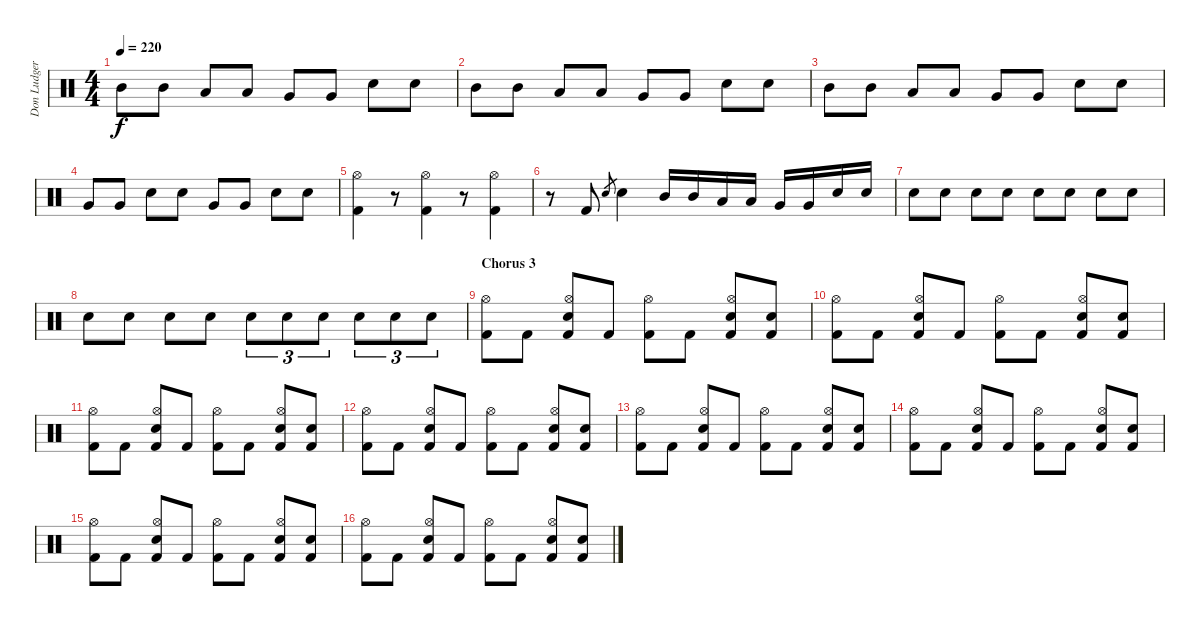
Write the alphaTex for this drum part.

\track ("Don Ludger" "Don Ludger") {instrument percussion}
\staff {score}
\articulation defaults
\ts (4 4)
\tempo 220
\clef neutral
\ks c "Mid Tom (hit)".8{dy f} "Mid Tom (hit)".8 "Low Tom (hit)".8 "Low Tom (hit)".8 "Very Low Tom (hit)".8 "Very Low Tom (hit)".8 "Electric Snare (hit)".8 "Electric Snare (hit)".8
|
"Mid Tom (hit)".8 "Mid Tom (hit)".8 "Low Tom (hit)".8 "Low Tom (hit)".8 "Very Low Tom (hit)".8 "Very Low Tom (hit)".8 "Electric Snare (hit)".8 "Electric Snare (hit)".8 |
"Mid Tom (hit)".8 "Mid Tom (hit)".8 "Low Tom (hit)".8 "Low Tom (hit)".8 "Very Low Tom (hit)".8 "Very Low Tom (hit)".8 "Electric Snare (hit)".8 "Electric Snare (hit)".8 |
"Very Low Tom (hit)".8 "Very Low Tom (hit)".8 "Electric Snare (hit)".8 "Electric Snare (hit)".8 "Very Low Tom (hit)".8 "Very Low Tom (hit)".8 "Electric Snare (hit)".8 "Electric Snare (hit)".8 |
("Hi-Hat (open)" "Kick (hit) 2").4 r.8 ("Hi-Hat (open)" "Kick (hit) 2").4 r.8 ("Hi-Hat (open)" "Kick (hit) 2").4 |
r.8 "Kick (hit) 2".8 "Electric Snare (hit)".8{gr} "Electric Snare (hit)".4 "Mid Tom (hit)".16 "Mid Tom (hit)".16 "Low Tom (hit)".16 "Low Tom (hit)".16 "Very Low Tom (hit)".16 "Very Low Tom (hit)".16 "Electric Snare (hit)".16 "Electric Snare (hit)".16 |
"Electric Snare (hit)".8 "Electric Snare (hit)".8 "Electric Snare (hit)".8 "Electric Snare (hit)".8 "Electric Snare (hit)".8 "Electric Snare (hit)".8 "Electric Snare (hit)".8 "Electric Snare (hit)".8 |
"Electric Snare (hit)".8 "Electric Snare (hit)".8 "Electric Snare (hit)".8 "Electric Snare (hit)".8 "Electric Snare (hit)".8{tu (3 2)} "Electric Snare (hit)".8{tu (3 2)} "Electric Snare (hit)".8{tu (3 2)} "Electric Snare (hit)".8{tu (3 2)} "Electric Snare (hit)".8{tu (3 2)} "Electric Snare (hit)".8{tu (3 2)} |
\section ("" "Chorus 3")
("Hi-Hat (open)" "Kick (hit) 2").8 "Kick (hit) 2".8 ("Hi-Hat (open)" "Electric Snare (hit)" "Kick (hit) 2").8 "Kick (hit) 2".8 ("Hi-Hat (open)" "Kick (hit) 2").8 "Kick (hit) 2".8 ("Hi-Hat (open)" "Electric Snare (hit)" "Kick (hit) 2").8 ("Electric Snare (hit)" "Kick (hit) 2").8 |
("Hi-Hat (open)" "Kick (hit) 2").8 "Kick (hit) 2".8 ("Hi-Hat (open)" "Electric Snare (hit)" "Kick (hit) 2").8 "Kick (hit) 2".8 ("Hi-Hat (open)" "Kick (hit) 2").8 "Kick (hit) 2".8 ("Hi-Hat (open)" "Electric Snare (hit)" "Kick (hit) 2").8 ("Electric Snare (hit)" "Kick (hit) 2").8 |
("Hi-Hat (open)" "Kick (hit) 2").8 "Kick (hit) 2".8 ("Hi-Hat (open)" "Electric Snare (hit)" "Kick (hit) 2").8 "Kick (hit) 2".8 ("Hi-Hat (open)" "Kick (hit) 2").8 "Kick (hit) 2".8 ("Hi-Hat (open)" "Electric Snare (hit)" "Kick (hit) 2").8 ("Electric Snare (hit)" "Kick (hit) 2").8 |
("Hi-Hat (open)" "Kick (hit) 2").8 "Kick (hit) 2".8 ("Hi-Hat (open)" "Electric Snare (hit)" "Kick (hit) 2").8 "Kick (hit) 2".8 ("Hi-Hat (open)" "Kick (hit) 2").8 "Kick (hit) 2".8 ("Hi-Hat (open)" "Electric Snare (hit)" "Kick (hit) 2").8 ("Electric Snare (hit)" "Kick (hit) 2").8 |
("Hi-Hat (open)" "Kick (hit) 2").8 "Kick (hit) 2".8 ("Hi-Hat (open)" "Electric Snare (hit)" "Kick (hit) 2").8 "Kick (hit) 2".8 ("Hi-Hat (open)" "Kick (hit) 2").8 "Kick (hit) 2".8 ("Hi-Hat (open)" "Electric Snare (hit)" "Kick (hit) 2").8 ("Electric Snare (hit)" "Kick (hit) 2").8 |
("Hi-Hat (open)" "Kick (hit) 2").8 "Kick (hit) 2".8 ("Hi-Hat (open)" "Electric Snare (hit)" "Kick (hit) 2").8 "Kick (hit) 2".8 ("Hi-Hat (open)" "Kick (hit) 2").8 "Kick (hit) 2".8 ("Hi-Hat (open)" "Electric Snare (hit)" "Kick (hit) 2").8 ("Electric Snare (hit)" "Kick (hit) 2").8 |
("Hi-Hat (open)" "Kick (hit) 2").8 "Kick (hit) 2".8 ("Hi-Hat (open)" "Electric Snare (hit)" "Kick (hit) 2").8 "Kick (hit) 2".8 ("Hi-Hat (open)" "Kick (hit) 2").8 "Kick (hit) 2".8 ("Hi-Hat (open)" "Electric Snare (hit)" "Kick (hit) 2").8 ("Electric Snare (hit)" "Kick (hit) 2").8 |
("Hi-Hat (open)" "Kick (hit) 2").8 "Kick (hit) 2".8 ("Hi-Hat (open)" "Electric Snare (hit)" "Kick (hit) 2").8 "Kick (hit) 2".8 ("Hi-Hat (open)" "Kick (hit) 2").8 "Kick (hit) 2".8 ("Hi-Hat (open)" "Electric Snare (hit)" "Kick (hit) 2").8 ("Electric Snare (hit)" "Kick (hit) 2").8
